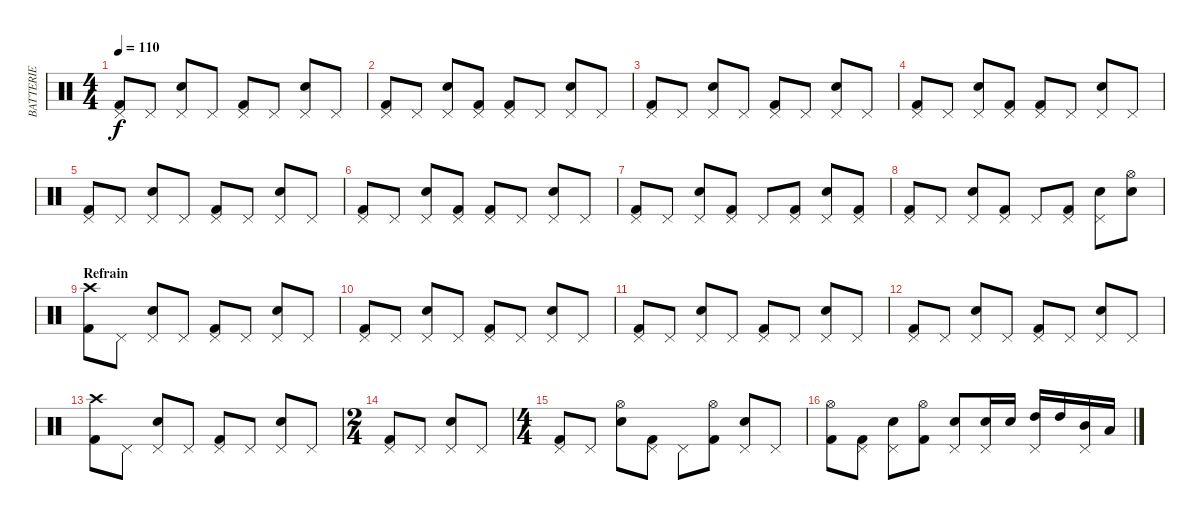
\track ("BATTERIE" "BATTERIE") {instrument percussion}
\staff {score}
\articulation defaults
\ts (4 4)
\tempo 110
\clef neutral
\ks c
("Pedal Hi-Hat (hit)" "Kick (hit) 2").8{dy f} "Pedal Hi-Hat (hit)".8 ("Pedal Hi-Hat (hit)" "Snare (hit) 2").8 "Pedal Hi-Hat (hit)".8 ("Pedal Hi-Hat (hit)" "Kick (hit) 2").8 "Pedal Hi-Hat (hit)".8 ("Pedal Hi-Hat (hit)" "Snare (hit) 2").8 "Pedal Hi-Hat (hit)".8 |
("Pedal Hi-Hat (hit)" "Kick (hit) 2").8 "Pedal Hi-Hat (hit)".8 ("Pedal Hi-Hat (hit)" "Snare (hit) 2").8 ("Pedal Hi-Hat (hit)" "Kick (hit) 2").8 ("Pedal Hi-Hat (hit)" "Kick (hit) 2").8 "Pedal Hi-Hat (hit)".8 ("Pedal Hi-Hat (hit)" "Snare (hit) 2").8 "Pedal Hi-Hat (hit)".8 |
("Pedal Hi-Hat (hit)" "Kick (hit) 2").8 "Pedal Hi-Hat (hit)".8 ("Pedal Hi-Hat (hit)" "Snare (hit) 2").8 "Pedal Hi-Hat (hit)".8 ("Pedal Hi-Hat (hit)" "Kick (hit) 2").8 "Pedal Hi-Hat (hit)".8 ("Pedal Hi-Hat (hit)" "Snare (hit) 2").8 "Pedal Hi-Hat (hit)".8 |
("Pedal Hi-Hat (hit)" "Kick (hit) 2").8 "Pedal Hi-Hat (hit)".8 ("Pedal Hi-Hat (hit)" "Snare (hit) 2").8 ("Pedal Hi-Hat (hit)" "Kick (hit) 2").8 ("Pedal Hi-Hat (hit)" "Kick (hit) 2").8 "Pedal Hi-Hat (hit)".8 ("Pedal Hi-Hat (hit)" "Snare (hit) 2").8 "Pedal Hi-Hat (hit)".8 |
("Pedal Hi-Hat (hit)" "Kick (hit) 2").8 "Pedal Hi-Hat (hit)".8 ("Pedal Hi-Hat (hit)" "Snare (hit) 2").8 "Pedal Hi-Hat (hit)".8 ("Pedal Hi-Hat (hit)" "Kick (hit) 2").8 "Pedal Hi-Hat (hit)".8 ("Pedal Hi-Hat (hit)" "Snare (hit) 2").8 "Pedal Hi-Hat (hit)".8 |
("Pedal Hi-Hat (hit)" "Kick (hit) 2").8 "Pedal Hi-Hat (hit)".8 ("Pedal Hi-Hat (hit)" "Snare (hit) 2").8 ("Pedal Hi-Hat (hit)" "Kick (hit) 2").8 ("Pedal Hi-Hat (hit)" "Kick (hit) 2").8 "Pedal Hi-Hat (hit)".8 ("Pedal Hi-Hat (hit)" "Snare (hit) 2").8 "Pedal Hi-Hat (hit)".8 |
("Pedal Hi-Hat (hit)" "Kick (hit) 2").8 "Pedal Hi-Hat (hit)".8 ("Pedal Hi-Hat (hit)" "Snare (hit) 2").8 ("Pedal Hi-Hat (hit)" "Kick (hit) 2").8 "Pedal Hi-Hat (hit)".8 ("Pedal Hi-Hat (hit)" "Kick (hit) 2").8 ("Pedal Hi-Hat (hit)" "Snare (hit) 2").8 ("Pedal Hi-Hat (hit)" "Kick (hit) 2").8 |
("Pedal Hi-Hat (hit)" "Kick (hit) 2").8 "Pedal Hi-Hat (hit)".8 ("Pedal Hi-Hat (hit)" "Snare (hit) 2").8 ("Pedal Hi-Hat (hit)" "Kick (hit) 2").8 "Pedal Hi-Hat (hit)".8 ("Pedal Hi-Hat (hit)" "Kick (hit) 2").8 ("Pedal Hi-Hat (hit)" "Snare (hit) 2").8 ("Hi-Hat (open)" "Snare (hit) 2").8 |
\section ("" "Refrain")
("Crash high (hit)" "Kick (hit) 2").8 "Pedal Hi-Hat (hit)".8 ("Pedal Hi-Hat (hit)" "Snare (hit) 2").8 "Pedal Hi-Hat (hit)".8 ("Pedal Hi-Hat (hit)" "Kick (hit) 2").8 "Pedal Hi-Hat (hit)".8 ("Pedal Hi-Hat (hit)" "Snare (hit) 2").8 "Pedal Hi-Hat (hit)".8 |
("Pedal Hi-Hat (hit)" "Kick (hit) 2").8 "Pedal Hi-Hat (hit)".8 ("Pedal Hi-Hat (hit)" "Snare (hit) 2").8 "Pedal Hi-Hat (hit)".8 ("Pedal Hi-Hat (hit)" "Kick (hit) 2").8 "Pedal Hi-Hat (hit)".8 ("Pedal Hi-Hat (hit)" "Snare (hit) 2").8 "Pedal Hi-Hat (hit)".8 |
("Pedal Hi-Hat (hit)" "Kick (hit) 2").8 "Pedal Hi-Hat (hit)".8 ("Pedal Hi-Hat (hit)" "Snare (hit) 2").8 "Pedal Hi-Hat (hit)".8 ("Pedal Hi-Hat (hit)" "Kick (hit) 2").8 "Pedal Hi-Hat (hit)".8 ("Pedal Hi-Hat (hit)" "Snare (hit) 2").8 "Pedal Hi-Hat (hit)".8 |
("Pedal Hi-Hat (hit)" "Kick (hit) 2").8 "Pedal Hi-Hat (hit)".8 ("Pedal Hi-Hat (hit)" "Snare (hit) 2").8 "Pedal Hi-Hat (hit)".8 ("Pedal Hi-Hat (hit)" "Kick (hit) 2").8 "Pedal Hi-Hat (hit)".8 ("Pedal Hi-Hat (hit)" "Snare (hit) 2").8 "Pedal Hi-Hat (hit)".8 |
("Crash high (hit)" "Kick (hit) 2").8 "Pedal Hi-Hat (hit)".8 ("Pedal Hi-Hat (hit)" "Snare (hit) 2").8 "Pedal Hi-Hat (hit)".8 ("Pedal Hi-Hat (hit)" "Kick (hit) 2").8 "Pedal Hi-Hat (hit)".8 ("Pedal Hi-Hat (hit)" "Snare (hit) 2").8 "Pedal Hi-Hat (hit)".8 |
\ts (2 4)
("Pedal Hi-Hat (hit)" "Kick (hit) 2").8 "Pedal Hi-Hat (hit)".8 ("Pedal Hi-Hat (hit)" "Snare (hit) 2").8 "Pedal Hi-Hat (hit)".8 |
\ts (4 4)
("Pedal Hi-Hat (hit)" "Kick (hit) 2").8 "Pedal Hi-Hat (hit)".8 ("Hi-Hat (open)" "Snare (hit) 2").8 ("Pedal Hi-Hat (hit)" "Kick (hit) 2").8 "Pedal Hi-Hat (hit)".8 ("Hi-Hat (open)" "Kick (hit) 2").8 ("Pedal Hi-Hat (hit)" "Snare (hit) 2").8 "Pedal Hi-Hat (hit)".8 |
("Hi-Hat (open)" "Kick (hit) 2").8 ("Pedal Hi-Hat (hit)" "Kick (hit) 2").8 ("Pedal Hi-Hat (hit)" "Snare (hit) 2").8 ("Hi-Hat (open)" "Kick (hit) 2").8 ("Pedal Hi-Hat (hit)" "Snare (hit) 2").8 ("Pedal Hi-Hat (hit)" "Snare (hit) 2").16 "Snare (hit) 2".16 ("Pedal Hi-Hat (hit)" "High Tom (hit)").16 "High Tom (hit)".16 ("Pedal Hi-Hat (hit)" "Mid Tom (hit)").16 "Low Tom (hit)".16
